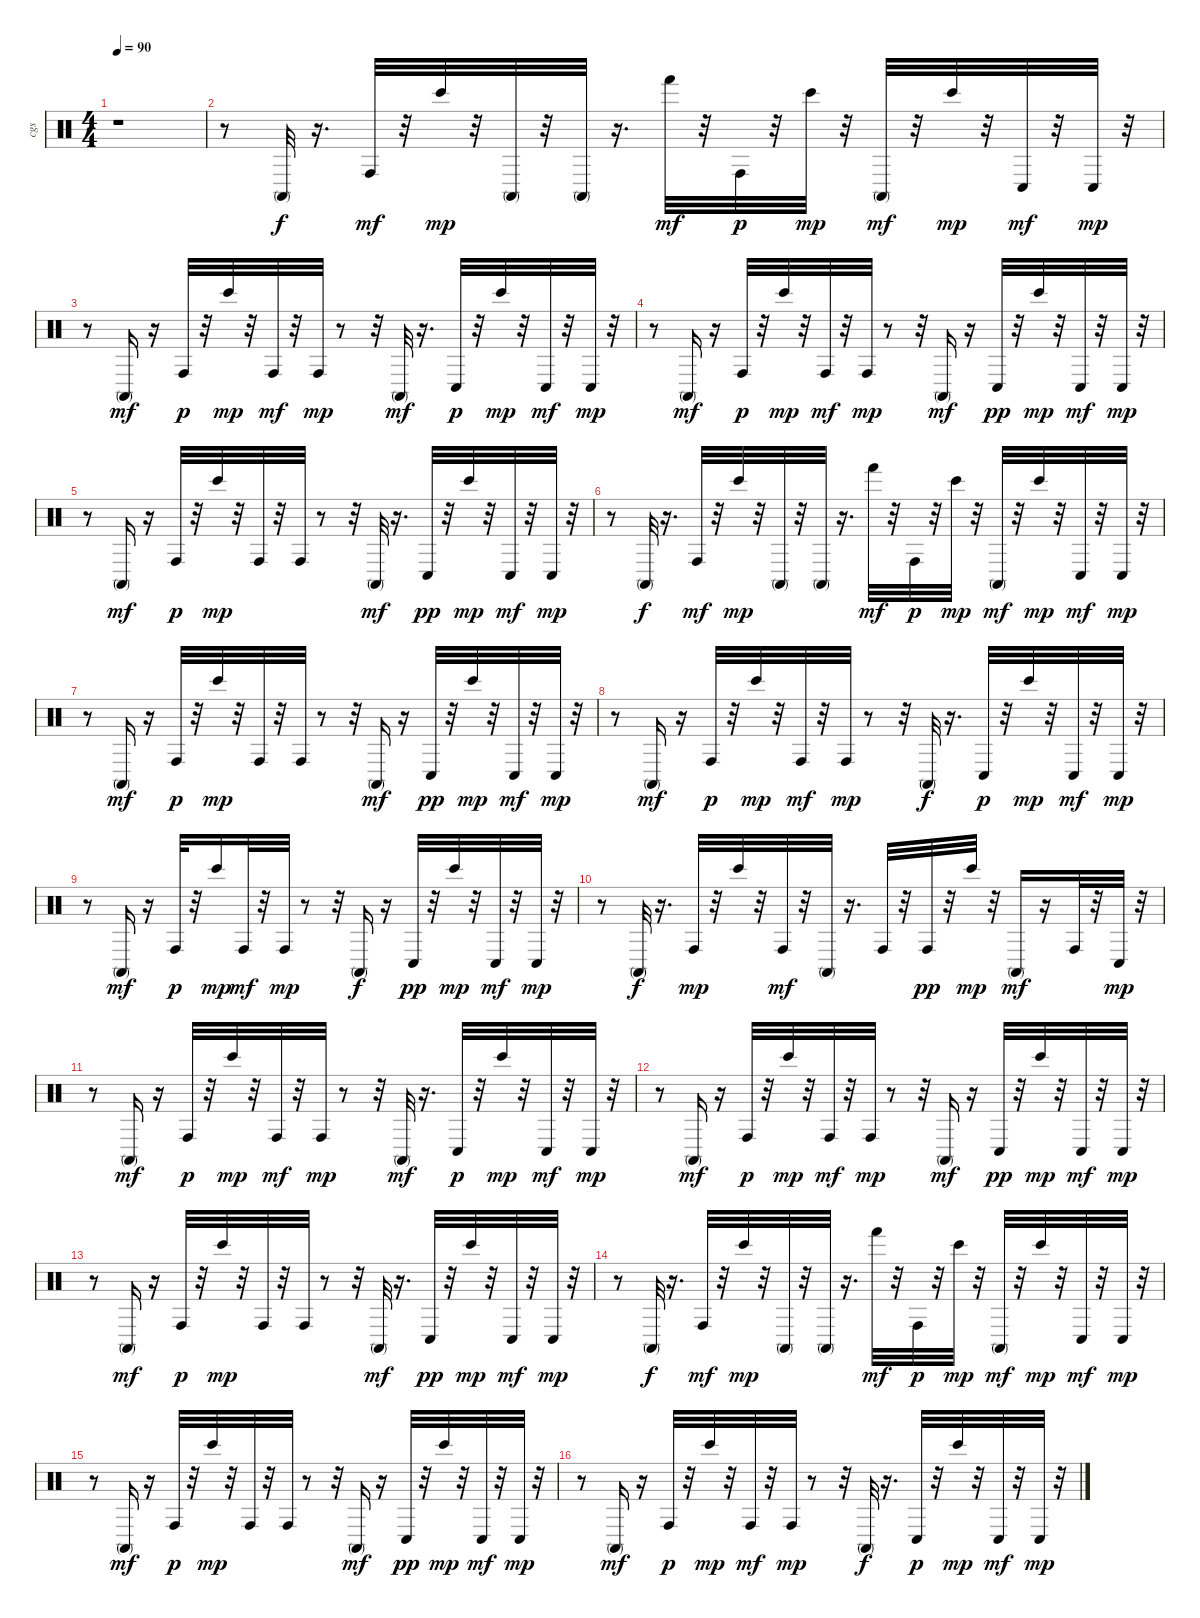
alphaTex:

\track ("cgs" "cgs") {instrument percussion}
\staff {score}
\articulation defaults
\ts (4 4)
\tempo 90
\clef neutral
\ks c
r.1{dy f} |
r.8 "Conga high (mute)".32 r.16{d} "Conga high (hit)".32{dy mf} r.32 "Bongo High (hit)".32{dy mp} r.32 "Conga high (mute)".32 r.32 "Conga high (mute)".32 r.16{d} "Hand (hit)".32{dy mf} r.32 "Conga high (hit)".32{dy p} r.32 "Bongo High (hit)".32{dy mp} r.32 "Conga high (mute)".32{dy mf} r.32 "Bongo High (hit)".32{dy mp} r.32 "Conga low (hit)".32{dy mf} r.32 "Conga low (hit)".32{dy mp} r.32 |
r.8 "Conga high (mute)".16{dy mf} r.16 "Conga high (hit)".32{dy p} r.32 "Bongo High (hit)".32{dy mp} r.32 "Conga high (hit)".32{dy mf} r.32 "Conga high (hit)".32{dy mp} r.8 r.32 "Conga high (mute)".32{dy mf} r.16{d} "Conga low (hit)".32{dy p} r.32 "Bongo High (hit)".32{dy mp} r.32 "Conga low (hit)".32{dy mf} r.32 "Conga low (hit)".32{dy mp} r.32 |
r.8 "Conga high (mute)".16{dy mf} r.16 "Conga high (hit)".32{dy p} r.32 "Bongo High (hit)".32{dy mp} r.32 "Conga high (hit)".32{dy mf} r.32 "Conga high (hit)".32{dy mp} r.8 r.32 "Conga high (mute)".16{dy mf} r.16 "Conga low (hit)".32{dy pp} r.32 "Bongo High (hit)".32{dy mp} r.32 "Conga low (hit)".32{dy mf} r.32 "Conga low (hit)".32{dy mp} r.32 |
r.8 "Conga high (mute)".16{dy mf} r.16 "Conga high (hit)".32{dy p} r.32 "Bongo High (hit)".32{dy mp} r.32 "Conga high (hit)".32 r.32 "Conga high (hit)".32 r.8 r.32 "Conga high (mute)".32{dy mf} r.16{d} "Conga low (hit)".32{dy pp} r.32 "Bongo High (hit)".32{dy mp} r.32 "Conga low (hit)".32{dy mf} r.32 "Conga low (hit)".32{dy mp} r.32 |
r.8 "Conga high (mute)".32{dy f} r.16{d} "Conga high (hit)".32{dy mf} r.32 "Bongo High (hit)".32{dy mp} r.32 "Conga high (mute)".32 r.32 "Conga high (mute)".32 r.16{d} "Hand (hit)".32{dy mf} r.32 "Conga high (hit)".32{dy p} r.32 "Bongo High (hit)".32{dy mp} r.32 "Conga high (mute)".32{dy mf} r.32 "Bongo High (hit)".32{dy mp} r.32 "Conga low (hit)".32{dy mf} r.32 "Conga low (hit)".32{dy mp} r.32 |
r.8 "Conga high (mute)".16{dy mf} r.16 "Conga high (hit)".32{dy p} r.32 "Bongo High (hit)".32{dy mp} r.32 "Conga high (hit)".32 r.32 "Conga high (hit)".32 r.8 r.32 "Conga high (mute)".16{dy mf} r.16 "Conga low (hit)".32{dy pp} r.32 "Bongo High (hit)".32{dy mp} r.32 "Conga low (hit)".32{dy mf} r.32 "Conga low (hit)".32{dy mp} r.32 |
r.8 "Conga high (mute)".16{dy mf} r.16 "Conga high (hit)".32{dy p} r.32 "Bongo High (hit)".32{dy mp} r.32 "Conga high (hit)".32{dy mf} r.32 "Conga high (hit)".32{dy mp} r.8 r.32 "Conga high (mute)".32{dy f} r.16{d} "Conga low (hit)".32{dy p} r.32 "Bongo High (hit)".32{dy mp} r.32 "Conga low (hit)".32{dy mf} r.32 "Conga low (hit)".32{dy mp} r.32 |
r.8 "Conga high (mute)".16{dy mf} r.16 "Conga high (hit)".32{dy p} r.32 "Bongo High (hit)".16{dy mp} "Conga high (hit)".32{dy mf} r.32 "Conga high (hit)".32{dy mp} r.8 r.32 "Conga high (mute)".16{dy f} r.16 "Conga low (hit)".32{dy pp} r.32 "Bongo High (hit)".32{dy mp} r.32 "Conga low (hit)".32{dy mf} r.32 "Conga low (hit)".32{dy mp} r.32 |
r.8 "Conga high (mute)".32{dy f} r.16{d} "Conga high (hit)".32{dy mp} r.32 "Bongo High (hit)".32 r.32 "Conga high (hit)".32{dy mf} r.32 "Conga high (mute)".32 r.16{d} "Conga high (hit)".32 r.32 "Conga high (hit)".32{dy pp} r.32 "Bongo High (hit)".32{dy mp} r.32 "Conga high (mute)".16{dy mf} r.16 "Conga high (hit)".32 r.32 "Conga low (hit)".32{dy mp} r.32 |
r.8 "Conga high (mute)".16{dy mf} r.16 "Conga high (hit)".32{dy p} r.32 "Bongo High (hit)".32{dy mp} r.32 "Conga high (hit)".32{dy mf} r.32 "Conga high (hit)".32{dy mp} r.8 r.32 "Conga high (mute)".32{dy mf} r.16{d} "Conga low (hit)".32{dy p} r.32 "Bongo High (hit)".32{dy mp} r.32 "Conga low (hit)".32{dy mf} r.32 "Conga low (hit)".32{dy mp} r.32 |
r.8 "Conga high (mute)".16{dy mf} r.16 "Conga high (hit)".32{dy p} r.32 "Bongo High (hit)".32{dy mp} r.32 "Conga high (hit)".32{dy mf} r.32 "Conga high (hit)".32{dy mp} r.8 r.32 "Conga high (mute)".16{dy mf} r.16 "Conga low (hit)".32{dy pp} r.32 "Bongo High (hit)".32{dy mp} r.32 "Conga low (hit)".32{dy mf} r.32 "Conga low (hit)".32{dy mp} r.32 |
r.8 "Conga high (mute)".16{dy mf} r.16 "Conga high (hit)".32{dy p} r.32 "Bongo High (hit)".32{dy mp} r.32 "Conga high (hit)".32 r.32 "Conga high (hit)".32 r.8 r.32 "Conga high (mute)".32{dy mf} r.16{d} "Conga low (hit)".32{dy pp} r.32 "Bongo High (hit)".32{dy mp} r.32 "Conga low (hit)".32{dy mf} r.32 "Conga low (hit)".32{dy mp} r.32 |
r.8 "Conga high (mute)".32{dy f} r.16{d} "Conga high (hit)".32{dy mf} r.32 "Bongo High (hit)".32{dy mp} r.32 "Conga high (mute)".32 r.32 "Conga high (mute)".32 r.16{d} "Hand (hit)".32{dy mf} r.32 "Conga high (hit)".32{dy p} r.32 "Bongo High (hit)".32{dy mp} r.32 "Conga high (mute)".32{dy mf} r.32 "Bongo High (hit)".32{dy mp} r.32 "Conga low (hit)".32{dy mf} r.32 "Conga low (hit)".32{dy mp} r.32 |
r.8 "Conga high (mute)".16{dy mf} r.16 "Conga high (hit)".32{dy p} r.32 "Bongo High (hit)".32{dy mp} r.32 "Conga high (hit)".32 r.32 "Conga high (hit)".32 r.8 r.32 "Conga high (mute)".16{dy mf} r.16 "Conga low (hit)".32{dy pp} r.32 "Bongo High (hit)".32{dy mp} r.32 "Conga low (hit)".32{dy mf} r.32 "Conga low (hit)".32{dy mp} r.32 |
r.8 "Conga high (mute)".16{dy mf} r.16 "Conga high (hit)".32{dy p} r.32 "Bongo High (hit)".32{dy mp} r.32 "Conga high (hit)".32{dy mf} r.32 "Conga high (hit)".32{dy mp} r.8 r.32 "Conga high (mute)".32{dy f} r.16{d} "Conga low (hit)".32{dy p} r.32 "Bongo High (hit)".32{dy mp} r.32 "Conga low (hit)".32{dy mf} r.32 "Conga low (hit)".32{dy mp} r.32
